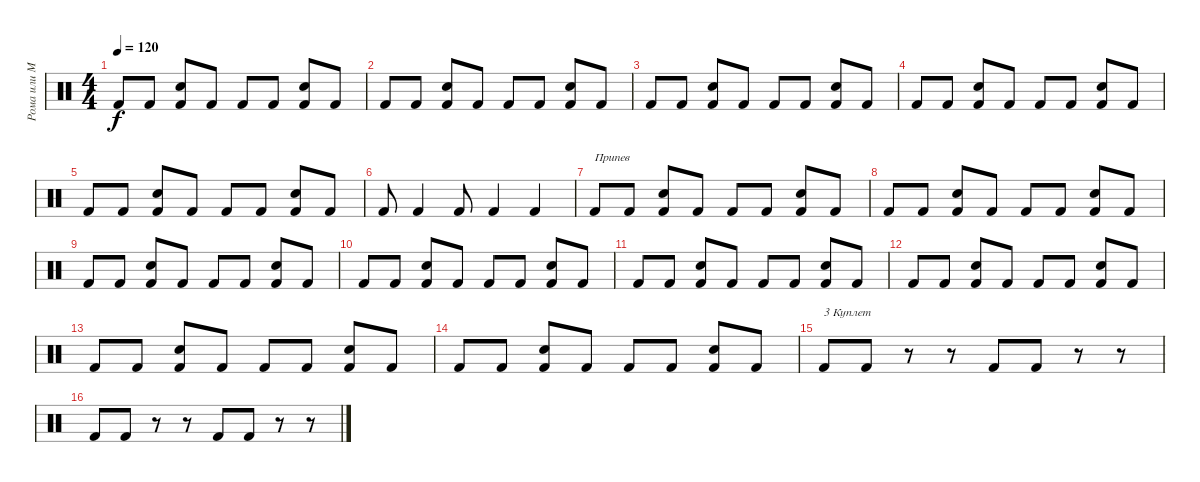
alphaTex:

\track ("Рома или Миша" "Рома или М") {instrument percussion}
\staff {score}
\articulation defaults
\ts (4 4)
\tempo 120
\clef neutral
\ks c "Kick (hit) 2".8{dy f} "Kick (hit) 2".8
("Snare (hit) 2" "Kick (hit) 2").8 "Kick (hit) 2".8 "Kick (hit) 2".8 "Kick (hit) 2".8 ("Snare (hit) 2" "Kick (hit) 2").8 "Kick (hit) 2".8 |
"Kick (hit) 2".8 "Kick (hit) 2".8 ("Snare (hit) 2" "Kick (hit) 2").8 "Kick (hit) 2".8 "Kick (hit) 2".8 "Kick (hit) 2".8 ("Snare (hit) 2" "Kick (hit) 2").8 "Kick (hit) 2".8 |
"Kick (hit) 2".8 "Kick (hit) 2".8 ("Snare (hit) 2" "Kick (hit) 2").8 "Kick (hit) 2".8 "Kick (hit) 2".8 "Kick (hit) 2".8 ("Snare (hit) 2" "Kick (hit) 2").8 "Kick (hit) 2".8 |
"Kick (hit) 2".8 "Kick (hit) 2".8 ("Snare (hit) 2" "Kick (hit) 2").8 "Kick (hit) 2".8 "Kick (hit) 2".8 "Kick (hit) 2".8 ("Snare (hit) 2" "Kick (hit) 2").8 "Kick (hit) 2".8 |
"Kick (hit) 2".8 "Kick (hit) 2".8 ("Snare (hit) 2" "Kick (hit) 2").8 "Kick (hit) 2".8 "Kick (hit) 2".8 "Kick (hit) 2".8 ("Snare (hit) 2" "Kick (hit) 2").8 "Kick (hit) 2".8 |
"Kick (hit) 2".8 "Kick (hit) 2".4 "Kick (hit) 2".8 "Kick (hit) 2".4 "Kick (hit) 2".4 |
"Kick (hit) 2".8{txt "Припев"} "Kick (hit) 2".8 ("Snare (hit) 2" "Kick (hit) 2").8 "Kick (hit) 2".8 "Kick (hit) 2".8 "Kick (hit) 2".8 ("Snare (hit) 2" "Kick (hit) 2").8 "Kick (hit) 2".8 |
"Kick (hit) 2".8 "Kick (hit) 2".8 ("Snare (hit) 2" "Kick (hit) 2").8 "Kick (hit) 2".8 "Kick (hit) 2".8 "Kick (hit) 2".8 ("Snare (hit) 2" "Kick (hit) 2").8 "Kick (hit) 2".8 |
"Kick (hit) 2".8 "Kick (hit) 2".8 ("Snare (hit) 2" "Kick (hit) 2").8 "Kick (hit) 2".8 "Kick (hit) 2".8 "Kick (hit) 2".8 ("Snare (hit) 2" "Kick (hit) 2").8 "Kick (hit) 2".8 |
"Kick (hit) 2".8 "Kick (hit) 2".8 ("Snare (hit) 2" "Kick (hit) 2").8 "Kick (hit) 2".8 "Kick (hit) 2".8 "Kick (hit) 2".8 ("Snare (hit) 2" "Kick (hit) 2").8 "Kick (hit) 2".8 |
"Kick (hit) 2".8 "Kick (hit) 2".8 ("Snare (hit) 2" "Kick (hit) 2").8 "Kick (hit) 2".8 "Kick (hit) 2".8 "Kick (hit) 2".8 ("Snare (hit) 2" "Kick (hit) 2").8 "Kick (hit) 2".8 |
"Kick (hit) 2".8 "Kick (hit) 2".8 ("Snare (hit) 2" "Kick (hit) 2").8 "Kick (hit) 2".8 "Kick (hit) 2".8 "Kick (hit) 2".8 ("Snare (hit) 2" "Kick (hit) 2").8 "Kick (hit) 2".8 |
"Kick (hit) 2".8 "Kick (hit) 2".8 ("Snare (hit) 2" "Kick (hit) 2").8 "Kick (hit) 2".8 "Kick (hit) 2".8 "Kick (hit) 2".8 ("Snare (hit) 2" "Kick (hit) 2").8 "Kick (hit) 2".8 |
"Kick (hit) 2".8 "Kick (hit) 2".8 ("Snare (hit) 2" "Kick (hit) 2").8 "Kick (hit) 2".8 "Kick (hit) 2".8 "Kick (hit) 2".8 ("Snare (hit) 2" "Kick (hit) 2").8 "Kick (hit) 2".8 |
"Kick (hit) 2".8{txt "3 Куплет"} "Kick (hit) 2".8 r.8 r.8 "Kick (hit) 2".8 "Kick (hit) 2".8 r.8 r.8 |
"Kick (hit) 2".8 "Kick (hit) 2".8 r.8 r.8 "Kick (hit) 2".8 "Kick (hit) 2".8 r.8 r.8
